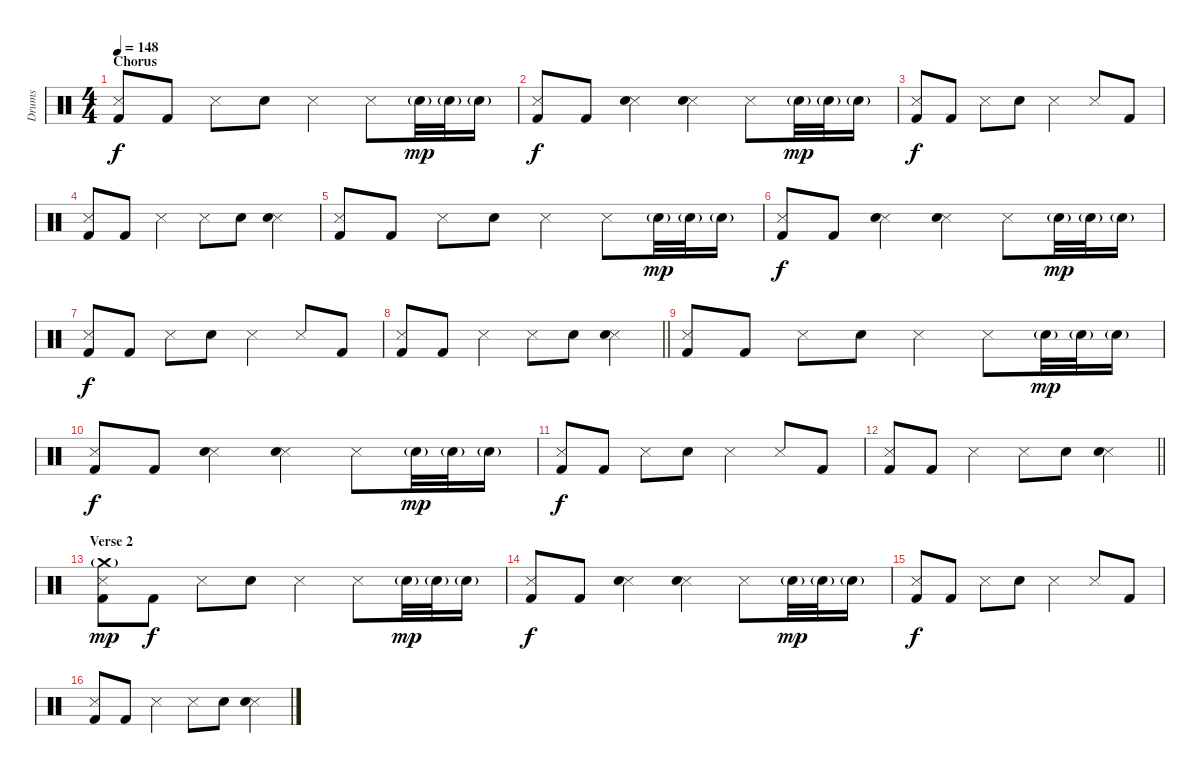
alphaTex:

\track ("Drums" "Drums") {instrument percussion}
\staff {score}
\articulation defaults
\ts (4 4)
\section ("" "Chorus")
\tempo 148
\clef neutral
\ks c
("Snare (side stick) 3" "Kick (hit) 2").8{dy f} "Kick (hit) 2".8 "Snare (side stick) 3".8 "Electric Snare (hit)".8 "Snare (side stick) 3".4 "Snare (side stick) 3".8 "Electric Snare (hit)"{g}.32{dy mp} "Electric Snare (hit)"{g}.32 "Electric Snare (hit)"{g}.16 |
("Snare (side stick) 3" "Kick (hit) 2").8{dy f} "Kick (hit) 2".8 ("Snare (side stick) 3" "Electric Snare (hit)").4 ("Snare (side stick) 3" "Electric Snare (hit)").4 "Snare (side stick) 3".8 "Electric Snare (hit)"{g}.32{dy mp} "Electric Snare (hit)"{g}.32 "Electric Snare (hit)"{g}.16 |
("Snare (side stick) 3" "Kick (hit) 2").8{dy f} "Kick (hit) 2".8 "Snare (side stick) 3".8 "Electric Snare (hit)".8 "Snare (side stick) 3".4 "Snare (side stick) 3".8 "Kick (hit) 2".8 |
("Snare (side stick) 3" "Kick (hit) 2").8 "Kick (hit) 2".8 "Snare (side stick) 3".4 "Snare (side stick) 3".8 "Electric Snare (hit)".8 ("Snare (side stick) 3" "Electric Snare (hit)").4 |
("Snare (side stick) 3" "Kick (hit) 2").8 "Kick (hit) 2".8 "Snare (side stick) 3".8 "Electric Snare (hit)".8 "Snare (side stick) 3".4 "Snare (side stick) 3".8 "Electric Snare (hit)"{g}.32{dy mp} "Electric Snare (hit)"{g}.32 "Electric Snare (hit)"{g}.16 |
("Snare (side stick) 3" "Kick (hit) 2").8{dy f} "Kick (hit) 2".8 ("Snare (side stick) 3" "Electric Snare (hit)").4 ("Snare (side stick) 3" "Electric Snare (hit)").4 "Snare (side stick) 3".8 "Electric Snare (hit)"{g}.32{dy mp} "Electric Snare (hit)"{g}.32 "Electric Snare (hit)"{g}.16 |
("Snare (side stick) 3" "Kick (hit) 2").8{dy f} "Kick (hit) 2".8 "Snare (side stick) 3".8 "Electric Snare (hit)".8 "Snare (side stick) 3".4 "Snare (side stick) 3".8 "Kick (hit) 2".8 |
\barLineRight lightlight
("Snare (side stick) 3" "Kick (hit) 2").8 "Kick (hit) 2".8 "Snare (side stick) 3".4 "Snare (side stick) 3".8 "Electric Snare (hit)".8 ("Snare (side stick) 3" "Electric Snare (hit)").4 |
("Snare (side stick) 3" "Kick (hit) 2").8 "Kick (hit) 2".8 "Snare (side stick) 3".8 "Electric Snare (hit)".8 "Snare (side stick) 3".4 "Snare (side stick) 3".8 "Electric Snare (hit)"{g}.32{dy mp} "Electric Snare (hit)"{g}.32 "Electric Snare (hit)"{g}.16 |
("Snare (side stick) 3" "Kick (hit) 2").8{dy f} "Kick (hit) 2".8 ("Snare (side stick) 3" "Electric Snare (hit)").4 ("Snare (side stick) 3" "Electric Snare (hit)").4 "Snare (side stick) 3".8 "Electric Snare (hit)"{g}.32{dy mp} "Electric Snare (hit)"{g}.32 "Electric Snare (hit)"{g}.16 |
("Snare (side stick) 3" "Kick (hit) 2").8{dy f} "Kick (hit) 2".8 "Snare (side stick) 3".8 "Electric Snare (hit)".8 "Snare (side stick) 3".4 "Snare (side stick) 3".8 "Kick (hit) 2".8 |
\barLineRight lightlight
("Snare (side stick) 3" "Kick (hit) 2").8 "Kick (hit) 2".8 "Snare (side stick) 3".4 "Snare (side stick) 3".8 "Electric Snare (hit)".8 ("Snare (side stick) 3" "Electric Snare (hit)").4 |
\section ("" "Verse 2")
("Snare (side stick) 3" "Crash medium (hit)"{g} "Kick (hit) 2").8{dy mp} "Kick (hit) 2".8{dy f} "Snare (side stick) 3".8 "Electric Snare (hit)".8 "Snare (side stick) 3".4 "Snare (side stick) 3".8 "Electric Snare (hit)"{g}.32{dy mp} "Electric Snare (hit)"{g}.32 "Electric Snare (hit)"{g}.16 |
("Snare (side stick) 3" "Kick (hit) 2").8{dy f} "Kick (hit) 2".8 ("Snare (side stick) 3" "Electric Snare (hit)").4 ("Snare (side stick) 3" "Electric Snare (hit)").4 "Snare (side stick) 3".8 "Electric Snare (hit)"{g}.32{dy mp} "Electric Snare (hit)"{g}.32 "Electric Snare (hit)"{g}.16 |
("Snare (side stick) 3" "Kick (hit) 2").8{dy f} "Kick (hit) 2".8 "Snare (side stick) 3".8 "Electric Snare (hit)".8 "Snare (side stick) 3".4 "Snare (side stick) 3".8 "Kick (hit) 2".8 |
("Snare (side stick) 3" "Kick (hit) 2").8 "Kick (hit) 2".8 "Snare (side stick) 3".4 "Snare (side stick) 3".8 "Electric Snare (hit)".8 ("Snare (side stick) 3" "Electric Snare (hit)").4
